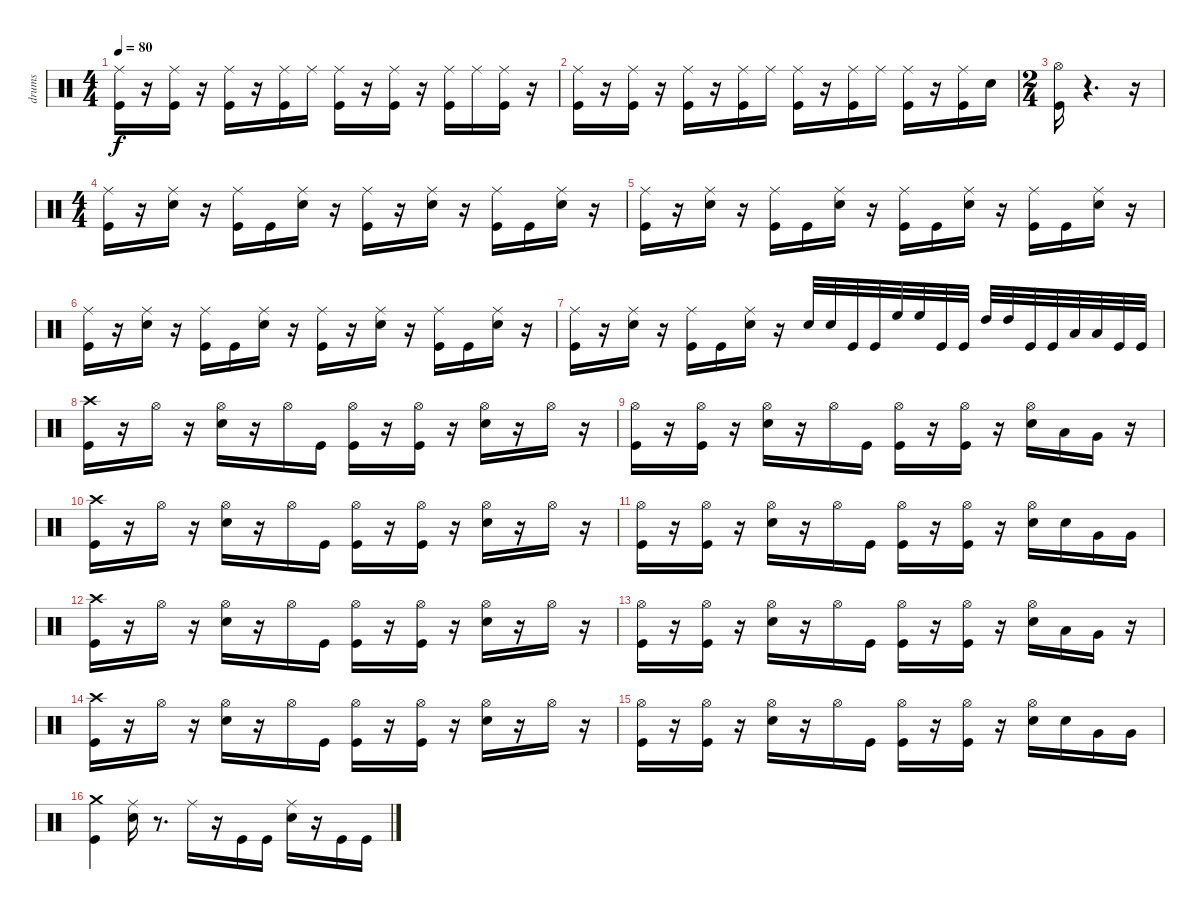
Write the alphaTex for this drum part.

\track ("drums" "drums") {instrument percussion}
\staff {score}
\articulation defaults
\ts (4 4)
\tempo 80
\clef neutral
\ks c
("Ride (middle)" "Kick (hit)").16{dy f} r.16 ("Ride (middle)" "Kick (hit)").16 r.16 ("Ride (middle)" "Kick (hit)").16 r.16 ("Ride (middle)" "Kick (hit)").16 "Ride (middle)".16 ("Ride (middle)" "Kick (hit)").16 r.16 ("Kick (hit)" "Ride (middle)").16 r.16 ("Kick (hit)" "Ride (middle)").16 "Ride (middle)".16 ("Ride (middle)" "Kick (hit)").16 r.16 |
("Ride (middle)" "Kick (hit)").16 r.16 ("Ride (middle)" "Kick (hit)").16 r.16 ("Ride (middle)" "Kick (hit)").16 r.16 ("Ride (middle)" "Kick (hit)").16 "Ride (middle)".16 ("Ride (middle)" "Kick (hit)").16 r.16 ("Kick (hit)" "Ride (middle)").16 "Ride (middle)".16 ("Ride (middle)" "Kick (hit)").16 r.16 ("Ride (middle)" "Kick (hit)").16 "Electric Snare (hit)".16 |
\ts (2 4)
("Hi-Hat (open)" "Kick (hit)").16 r.4{d} r.16 |
\ts (4 4)
("Ride (middle)" "Kick (hit)").16 r.16 ("Electric Snare (hit)" "Ride (middle)").16 r.16 ("Kick (hit)" "Ride (middle)").16 "Kick (hit)".16 ("Ride (middle)" "Electric Snare (hit)").16 r.16 ("Ride (middle)" "Kick (hit)").16 r.16 ("Ride (middle)" "Electric Snare (hit)").16 r.16 ("Ride (middle)" "Kick (hit)").16 "Kick (hit)".16 ("Ride (middle)" "Electric Snare (hit)").16 r.16 |
("Kick (hit)" "Ride (middle)").16 r.16 ("Ride (middle)" "Electric Snare (hit)").16 r.16 ("Kick (hit)" "Ride (middle)").16 "Kick (hit)".16 ("Electric Snare (hit)" "Ride (middle)").16 r.16 ("Kick (hit)" "Ride (middle)").16 "Kick (hit)".16 ("Electric Snare (hit)" "Ride (middle)").16 r.16 ("Kick (hit)" "Ride (middle)").16 "Kick (hit)".16 ("Electric Snare (hit)" "Ride (middle)").16 r.16 |
("Kick (hit)" "Ride (middle)").16 r.16 ("Electric Snare (hit)" "Ride (middle)").16 r.16 ("Ride (middle)" "Kick (hit)").16 "Kick (hit)".16 ("Ride (middle)" "Electric Snare (hit)").16 r.16 ("Ride (middle)" "Kick (hit)").16 r.16 ("Ride (middle)" "Electric Snare (hit)").16 r.16 ("Ride (middle)" "Kick (hit)").16 "Kick (hit)".16 ("Ride (middle)" "Electric Snare (hit)").16 r.16 |
("Ride (middle)" "Kick (hit)").16 r.16 ("Electric Snare (hit)" "Ride (middle)").16 r.16 ("Kick (hit)" "Ride (middle)").16 "Kick (hit)".16 ("Electric Snare (hit)" "Ride (middle)").16 r.16 "Electric Snare (hit)".32 "Electric Snare (hit)".32 "Kick (hit)".32 "Kick (hit)".32 "High Floor Tom (hit)".32 "High Floor Tom (hit)".32 "Kick (hit)".32 "Kick (hit)".32 "High Tom (hit)".32 "High Tom (hit)".32 "Kick (hit)".32 "Kick (hit)".32 "Low Tom (hit)".32 "Low Tom (hit)".32 "Kick (hit)".32 "Kick (hit)".32 |
("Crash high (hit)" "Kick (hit)").16 r.16 "Hi-Hat (open)".16 r.16 ("Hi-Hat (open)" "Electric Snare (hit)").16 r.16 "Hi-Hat (open)".16 "Kick (hit)".16 ("Hi-Hat (open)" "Kick (hit)").16 r.16 ("Hi-Hat (open)" "Kick (hit)").16 r.16 ("Electric Snare (hit)" "Hi-Hat (open)").16 r.16 "Hi-Hat (open)".16 r.16 |
("Hi-Hat (open)" "Kick (hit)").16 r.16 ("Hi-Hat (open)" "Kick (hit)").16 r.16 ("Hi-Hat (open)" "Electric Snare (hit)").16 r.16 "Hi-Hat (open)".16 "Kick (hit)".16 ("Hi-Hat (open)" "Kick (hit)").16 r.16 ("Hi-Hat (open)" "Kick (hit)").16 r.16 ("Hi-Hat (open)" "Electric Snare (hit)").16 "Low Tom (hit)".16 "Very Low Tom (hit)".16 r.16 |
("Kick (hit)" "Crash high (hit)").16 r.16 "Hi-Hat (open)".16 r.16 ("Hi-Hat (open)" "Electric Snare (hit)").16 r.16 "Hi-Hat (open)".16 "Kick (hit)".16 ("Hi-Hat (open)" "Kick (hit)").16 r.16 ("Hi-Hat (open)" "Kick (hit)").16 r.16 ("Hi-Hat (open)" "Electric Snare (hit)").16 r.16 "Hi-Hat (open)".16 r.16 |
("Hi-Hat (open)" "Kick (hit)").16 r.16 ("Kick (hit)" "Hi-Hat (open)").16 r.16 ("Hi-Hat (open)" "Electric Snare (hit)").16 r.16 "Hi-Hat (open)".16 "Kick (hit)".16 ("Hi-Hat (open)" "Kick (hit)").16 r.16 ("Hi-Hat (open)" "Kick (hit)").16 r.16 ("Hi-Hat (open)" "Electric Snare (hit)").16 "Electric Snare (hit)".16 "Very Low Tom (hit)".16 "Very Low Tom (hit)".16 |
("Crash high (hit)" "Kick (hit)").16 r.16 "Hi-Hat (open)".16 r.16 ("Hi-Hat (open)" "Electric Snare (hit)").16 r.16 "Hi-Hat (open)".16 "Kick (hit)".16 ("Hi-Hat (open)" "Kick (hit)").16 r.16 ("Hi-Hat (open)" "Kick (hit)").16 r.16 ("Hi-Hat (open)" "Electric Snare (hit)").16 r.16 "Hi-Hat (open)".16 r.16 |
("Hi-Hat (open)" "Kick (hit)").16 r.16 ("Hi-Hat (open)" "Kick (hit)").16 r.16 ("Hi-Hat (open)" "Electric Snare (hit)").16 r.16 "Hi-Hat (open)".16 "Kick (hit)".16 ("Hi-Hat (open)" "Kick (hit)").16 r.16 ("Hi-Hat (open)" "Kick (hit)").16 r.16 ("Hi-Hat (open)" "Electric Snare (hit)").16 "Low Tom (hit)".16 "Very Low Tom (hit)".16 r.16 |
("Crash high (hit)" "Kick (hit)").16 r.16 "Hi-Hat (open)".16 r.16 ("Hi-Hat (open)" "Electric Snare (hit)").16 r.16 "Hi-Hat (open)".16 "Kick (hit)".16 ("Kick (hit)" "Hi-Hat (open)").16 r.16 ("Kick (hit)" "Hi-Hat (open)").16 r.16 ("Hi-Hat (open)" "Electric Snare (hit)").16 r.16 "Hi-Hat (open)".16 r.16 |
("Hi-Hat (open)" "Kick (hit)").16 r.16 ("Hi-Hat (open)" "Kick (hit)").16 r.16 ("Hi-Hat (open)" "Electric Snare (hit)").16 r.16 "Hi-Hat (open)".16 "Kick (hit)".16 ("Hi-Hat (open)" "Kick (hit)").16 r.16 ("Hi-Hat (open)" "Kick (hit)").16 r.16 ("Electric Snare (hit)" "Hi-Hat (open)").16 "Electric Snare (hit)".16 "Very Low Tom (hit)".16 "Very Low Tom (hit)".16 |
("Kick (hit)" "Crash medium (hit)").4 ("Ride (middle)" "Electric Snare (hit)").16 r.8{d} "Ride (middle)".16 r.16 "Kick (hit)".16 "Kick (hit)".16 ("Ride (middle)" "Electric Snare (hit)").16 r.16 "Kick (hit)".16 "Kick (hit)".16
